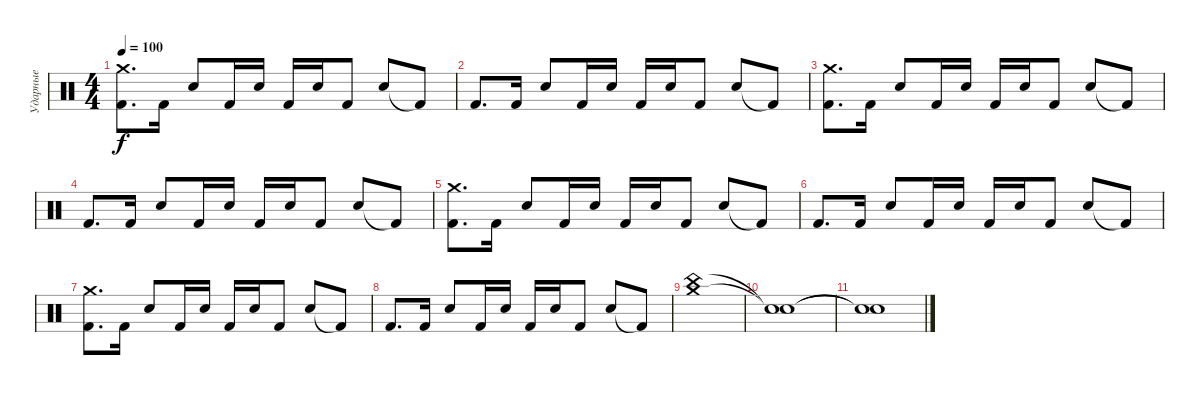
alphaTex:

\track ("Ударные" "Ударные") {instrument percussion}
\staff {score}
\articulation defaults
\ts (4 4)
\tempo 100
\clef neutral
\ks c
("Kick (hit) 2" "Crash medium (hit)").8{d dy f} "Kick (hit) 2".16 "Snare (hit) 2".8 "Kick (hit) 2".16 "Snare (hit) 2".16 "Kick (hit) 2".16 "Snare (hit) 2".16 "Kick (hit) 2".8 "Snare (hit) 2".8 "Kick (hit) 2"{t}.8 |
"Kick (hit) 2".8{d} "Kick (hit) 2".16 "Snare (hit) 2".8 "Kick (hit) 2".16 "Snare (hit) 2".16 "Kick (hit) 2".16 "Snare (hit) 2".16 "Kick (hit) 2".8 "Snare (hit) 2".8 "Kick (hit) 2"{t}.8 |
("Kick (hit) 2" "Crash medium (hit)").8{d} "Kick (hit) 2".16 "Snare (hit) 2".8 "Kick (hit) 2".16 "Snare (hit) 2".16 "Kick (hit) 2".16 "Snare (hit) 2".16 "Kick (hit) 2".8 "Snare (hit) 2".8 "Kick (hit) 2"{t}.8 |
"Kick (hit) 2".8{d} "Kick (hit) 2".16 "Snare (hit) 2".8 "Kick (hit) 2".16 "Snare (hit) 2".16 "Kick (hit) 2".16 "Snare (hit) 2".16 "Kick (hit) 2".8 "Snare (hit) 2".8 "Kick (hit) 2"{t}.8 |
("Kick (hit) 2" "Crash medium (hit)").8{d} "Kick (hit) 2".16 "Snare (hit) 2".8 "Kick (hit) 2".16 "Snare (hit) 2".16 "Kick (hit) 2".16 "Snare (hit) 2".16 "Kick (hit) 2".8 "Snare (hit) 2".8 "Kick (hit) 2"{t}.8 |
"Kick (hit) 2".8{d} "Kick (hit) 2".16 "Snare (hit) 2".8 "Kick (hit) 2".16 "Snare (hit) 2".16 "Kick (hit) 2".16 "Snare (hit) 2".16 "Kick (hit) 2".8 "Snare (hit) 2".8 "Kick (hit) 2"{t}.8 |
("Kick (hit) 2" "Crash medium (hit)").8{d} "Kick (hit) 2".16 "Snare (hit) 2".8 "Kick (hit) 2".16 "Snare (hit) 2".16 "Kick (hit) 2".16 "Snare (hit) 2".16 "Kick (hit) 2".8 "Snare (hit) 2".8 "Kick (hit) 2"{t}.8 |
"Kick (hit) 2".8{d} "Kick (hit) 2".16 "Snare (hit) 2".8 "Kick (hit) 2".16 "Snare (hit) 2".16 "Kick (hit) 2".16 "Snare (hit) 2".16 "Kick (hit) 2".8 "Snare (hit) 2".8 "Kick (hit) 2"{t}.8 |
("Crash medium (hit)" "China (hit)").1 |
("Snare (hit)"{t} "Snare (hit)"{t}).1 |
("Snare (hit)"{t} "Snare (hit)"{t}).1
